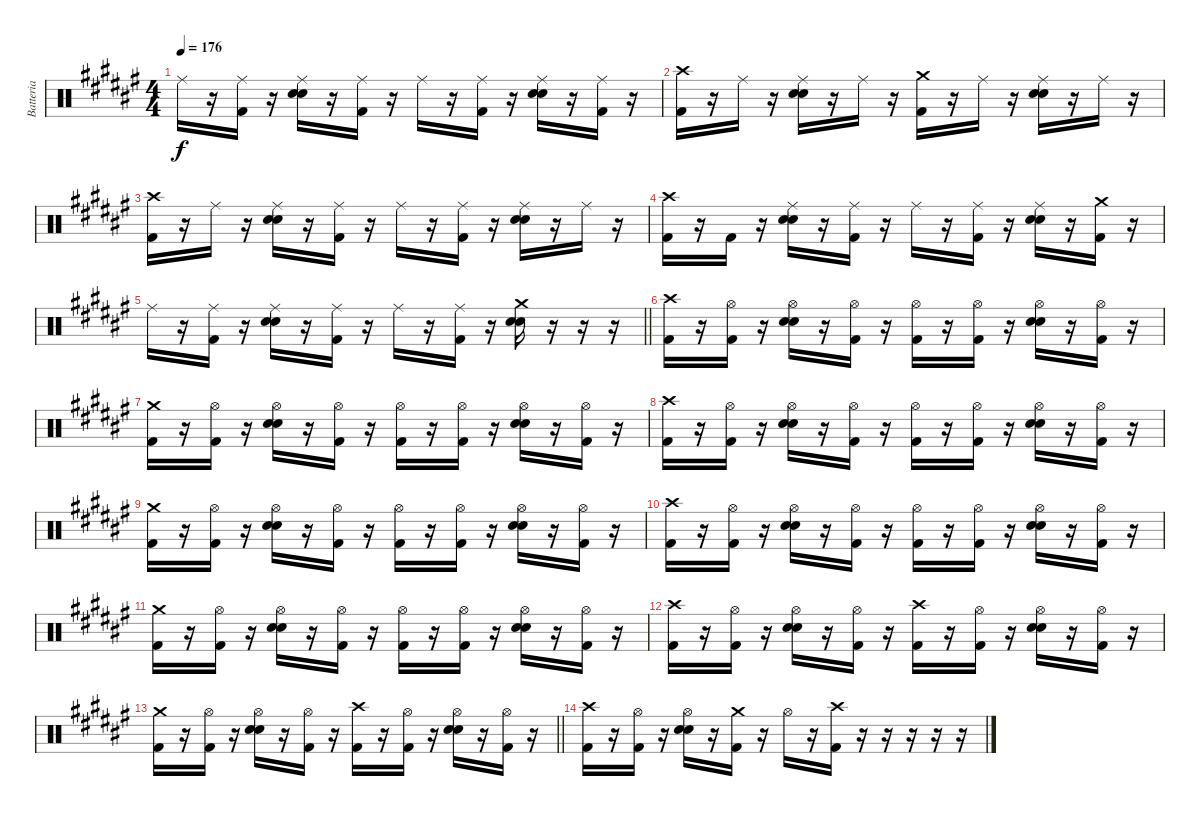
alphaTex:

\track ("Batteria" "Batteria") {instrument percussion}
\staff {score}
\articulation defaults
\ts (4 4)
\tempo 176
\clef neutral
\ks f# "Ride (middle)".16{dy f}
r.16 ("Kick (hit) 2" "Ride (middle)").16 r.16 ("Snare (hit) 2" "Snare (hit) 2" "Ride (middle)").16 r.16 ("Kick (hit) 2" "Ride (middle)").16 r.16 "Ride (middle)".16 r.16 ("Kick (hit) 2" "Ride (middle)").16 r.16 ("Snare (hit) 2" "Snare (hit) 2" "Ride (middle)").16 r.16 ("Kick (hit) 2" "Ride (middle)").16 r.16 |
("Kick (hit) 2" "Crash high (hit)").16 r.16 "Ride (middle)".16 r.16 ("Snare (hit) 2" "Snare (hit) 2" "Ride (middle)").16 r.16 "Ride (middle)".16 r.16 ("Kick (hit) 2" "Crash medium (hit)").16 r.16 "Ride (middle)".16 r.16 ("Snare (hit) 2" "Snare (hit) 2" "Ride (middle)").16 r.16 "Ride (middle)".16 r.16 |
("Kick (hit) 2" "Crash high (hit)").16 r.16 "Ride (middle)".16 r.16 ("Snare (hit) 2" "Snare (hit) 2" "Ride (middle)").16 r.16 ("Kick (hit) 2" "Ride (middle)").16 r.16 "Ride (middle)".16 r.16 ("Kick (hit) 2" "Ride (middle)").16 r.16 ("Snare (hit) 2" "Snare (hit) 2" "Ride (middle)").16 r.16 "Ride (middle)".16 r.16 |
("Kick (hit) 2" "Crash high (hit)").16 r.16 "Kick (hit) 2".16 r.16 ("Snare (hit) 2" "Snare (hit) 2" "Ride (middle)").16 r.16 ("Kick (hit) 2" "Ride (middle)").16 r.16 "Ride (middle)".16 r.16 ("Kick (hit) 2" "Ride (middle)").16 r.16 ("Snare (hit) 2" "Snare (hit) 2" "Ride (middle)").16 r.16 ("Kick (hit) 2" "Crash medium (hit)").16 r.16 |
\barLineRight lightlight "Ride (middle)".16
r.16 ("Kick (hit) 2" "Ride (middle)").16 r.16 ("Snare (hit) 2" "Snare (hit) 2" "Ride (middle)").16 r.16 ("Kick (hit) 2" "Ride (middle)").16 r.16 "Ride (middle)".16 r.16 ("Kick (hit) 2" "Ride (middle)").16 r.16 ("Snare (hit) 2" "Snare (hit) 2" "Crash medium (hit)").16 r.16 r.16 r.16 |
("Kick (hit) 2" "Crash high (hit)").16 r.16 ("Kick (hit) 2" "Hi-Hat (open)").16 r.16 ("Snare (hit) 2" "Snare (hit) 2" "Hi-Hat (open)").16 r.16 ("Kick (hit) 2" "Hi-Hat (open)").16 r.16 ("Kick (hit) 2" "Hi-Hat (open)").16 r.16 ("Kick (hit) 2" "Hi-Hat (open)").16 r.16 ("Snare (hit) 2" "Snare (hit) 2" "Hi-Hat (open)").16 r.16 ("Kick (hit) 2" "Hi-Hat (open)").16 r.16 |
("Kick (hit) 2" "Crash medium (hit)").16 r.16 ("Kick (hit) 2" "Hi-Hat (open)").16 r.16 ("Snare (hit) 2" "Snare (hit) 2" "Hi-Hat (open)").16 r.16 ("Kick (hit) 2" "Hi-Hat (open)").16 r.16 ("Kick (hit) 2" "Hi-Hat (open)").16 r.16 ("Kick (hit) 2" "Hi-Hat (open)").16 r.16 ("Snare (hit) 2" "Snare (hit) 2" "Hi-Hat (open)").16 r.16 ("Kick (hit) 2" "Hi-Hat (open)").16 r.16 |
("Kick (hit) 2" "Crash high (hit)").16 r.16 ("Kick (hit) 2" "Hi-Hat (open)").16 r.16 ("Snare (hit) 2" "Snare (hit) 2" "Hi-Hat (open)").16 r.16 ("Kick (hit) 2" "Hi-Hat (open)").16 r.16 ("Kick (hit) 2" "Hi-Hat (open)").16 r.16 ("Kick (hit) 2" "Hi-Hat (open)").16 r.16 ("Snare (hit) 2" "Snare (hit) 2" "Hi-Hat (open)").16 r.16 ("Kick (hit) 2" "Hi-Hat (open)").16 r.16 |
("Kick (hit) 2" "Crash medium (hit)").16 r.16 ("Kick (hit) 2" "Hi-Hat (open)").16 r.16 ("Snare (hit) 2" "Snare (hit) 2" "Hi-Hat (open)").16 r.16 ("Kick (hit) 2" "Hi-Hat (open)").16 r.16 ("Kick (hit) 2" "Hi-Hat (open)").16 r.16 ("Kick (hit) 2" "Hi-Hat (open)").16 r.16 ("Snare (hit) 2" "Snare (hit) 2" "Hi-Hat (open)").16 r.16 ("Kick (hit) 2" "Hi-Hat (open)").16 r.16 |
("Kick (hit) 2" "Crash high (hit)").16 r.16 ("Kick (hit) 2" "Hi-Hat (open)").16 r.16 ("Snare (hit) 2" "Snare (hit) 2" "Hi-Hat (open)").16 r.16 ("Kick (hit) 2" "Hi-Hat (open)").16 r.16 ("Kick (hit) 2" "Hi-Hat (open)").16 r.16 ("Kick (hit) 2" "Hi-Hat (open)").16 r.16 ("Snare (hit) 2" "Snare (hit) 2" "Hi-Hat (open)").16 r.16 ("Kick (hit) 2" "Hi-Hat (open)").16 r.16 |
("Kick (hit) 2" "Crash medium (hit)").16 r.16 ("Kick (hit) 2" "Hi-Hat (open)").16 r.16 ("Snare (hit) 2" "Snare (hit) 2" "Hi-Hat (open)").16 r.16 ("Kick (hit) 2" "Hi-Hat (open)").16 r.16 ("Kick (hit) 2" "Hi-Hat (open)").16 r.16 ("Kick (hit) 2" "Hi-Hat (open)").16 r.16 ("Snare (hit) 2" "Snare (hit) 2" "Hi-Hat (open)").16 r.16 ("Kick (hit) 2" "Hi-Hat (open)").16 r.16 |
("Kick (hit) 2" "Crash high (hit)").16 r.16 ("Kick (hit) 2" "Hi-Hat (open)").16 r.16 ("Snare (hit) 2" "Snare (hit) 2" "Hi-Hat (open)").16 r.16 ("Kick (hit) 2" "Hi-Hat (open)").16 r.16 ("Kick (hit) 2" "Crash high (hit)").16 r.16 ("Kick (hit) 2" "Hi-Hat (open)").16 r.16 ("Snare (hit) 2" "Snare (hit) 2" "Hi-Hat (open)").16 r.16 ("Kick (hit) 2" "Hi-Hat (open)").16 r.16 |
\barLineRight lightlight
("Kick (hit) 2" "Crash medium (hit)").16 r.16 ("Kick (hit) 2" "Hi-Hat (open)").16 r.16 ("Snare (hit) 2" "Snare (hit) 2" "Hi-Hat (open)").16 r.16 ("Kick (hit) 2" "Hi-Hat (open)").16 r.16 ("Kick (hit) 2" "Crash high (hit)").16 r.16 ("Kick (hit) 2" "Hi-Hat (open)").16 r.16 ("Snare (hit) 2" "Snare (hit) 2" "Hi-Hat (open)").16 r.16 ("Kick (hit) 2" "Hi-Hat (open)").16 r.16 |
("Kick (hit) 2" "Crash high (hit)").16 r.16 ("Kick (hit) 2" "Hi-Hat (open)").16 r.16 ("Snare (hit) 2" "Snare (hit) 2" "Hi-Hat (open)").16 r.16 ("Kick (hit) 2" "Crash medium (hit)").16 r.16 "Hi-Hat (open)".16 r.16 ("Kick (hit) 2" "Crash high (hit)").16 r.16 r.16 r.16 r.16 r.16
